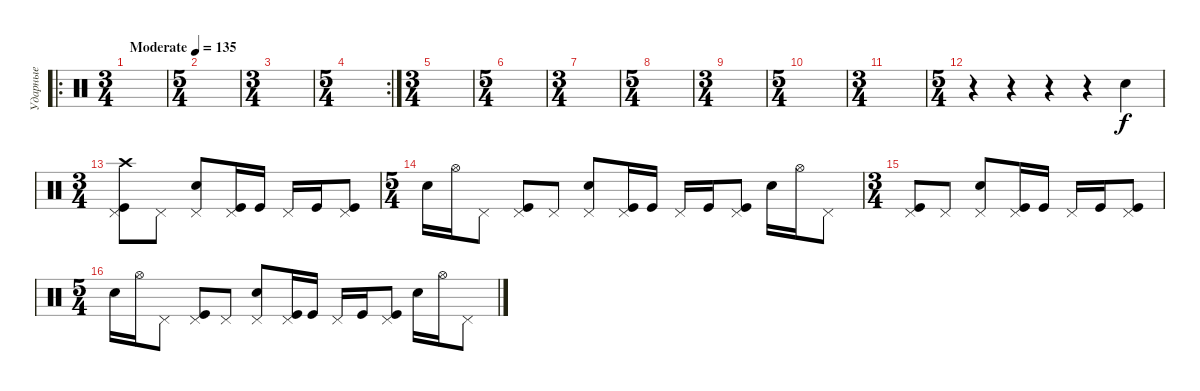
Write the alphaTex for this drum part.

\track ("Ударные" "Ударные") {instrument percussion}
\staff {score}
\articulation defaults
\ro
\ts (3 4)
\tempo (135 "Moderate")
\clef neutral
\ks c
|
\ts (5 4)
|
\ts (3 4)
|
\rc 2
\ts (5 4)
|
\ts (3 4)
|
\ts (5 4)
|
\ts (3 4)
|
\ts (5 4)
|
\ts (3 4)
|
\ts (5 4)
|
\ts (3 4)
|
\ts (5 4)
r.4 r.4 r.4 r.4 "Electric Snare (hit)".4 |
\ts (3 4)
("Kick (hit)" "Pedal Hi-Hat (hit)" "Crash high (hit)").8 "Pedal Hi-Hat (hit)".8 ("Pedal Hi-Hat (hit)" "Electric Snare (hit)").8 ("Kick (hit)" "Pedal Hi-Hat (hit)").16 "Kick (hit)".16 "Pedal Hi-Hat (hit)".16 "Kick (hit)".16 ("Kick (hit)" "Pedal Hi-Hat (hit)").8 |
\ts (5 4)
"Electric Snare (hit)".16 "Hi-Hat (open)".16 "Pedal Hi-Hat (hit)".8 ("Kick (hit)" "Pedal Hi-Hat (hit)").8 "Pedal Hi-Hat (hit)".8 ("Pedal Hi-Hat (hit)" "Electric Snare (hit)").8 ("Kick (hit)" "Pedal Hi-Hat (hit)").16 "Kick (hit)".16 "Pedal Hi-Hat (hit)".16 "Kick (hit)".16 ("Kick (hit)" "Pedal Hi-Hat (hit)").8 "Electric Snare (hit)".16 "Hi-Hat (open)".16 "Pedal Hi-Hat (hit)".8 |
\ts (3 4)
("Kick (hit)" "Pedal Hi-Hat (hit)").8 "Pedal Hi-Hat (hit)".8 ("Pedal Hi-Hat (hit)" "Electric Snare (hit)").8 ("Kick (hit)" "Pedal Hi-Hat (hit)").16 "Kick (hit)".16 "Pedal Hi-Hat (hit)".16 "Kick (hit)".16 ("Kick (hit)" "Pedal Hi-Hat (hit)").8 |
\ts (5 4)
"Electric Snare (hit)".16 "Hi-Hat (open)".16 "Pedal Hi-Hat (hit)".8 ("Kick (hit)" "Pedal Hi-Hat (hit)").8 "Pedal Hi-Hat (hit)".8 ("Pedal Hi-Hat (hit)" "Electric Snare (hit)").8 ("Kick (hit)" "Pedal Hi-Hat (hit)").16 "Kick (hit)".16 "Pedal Hi-Hat (hit)".16 "Kick (hit)".16 ("Kick (hit)" "Pedal Hi-Hat (hit)").8 "Electric Snare (hit)".16 "Hi-Hat (open)".16 "Pedal Hi-Hat (hit)".8
